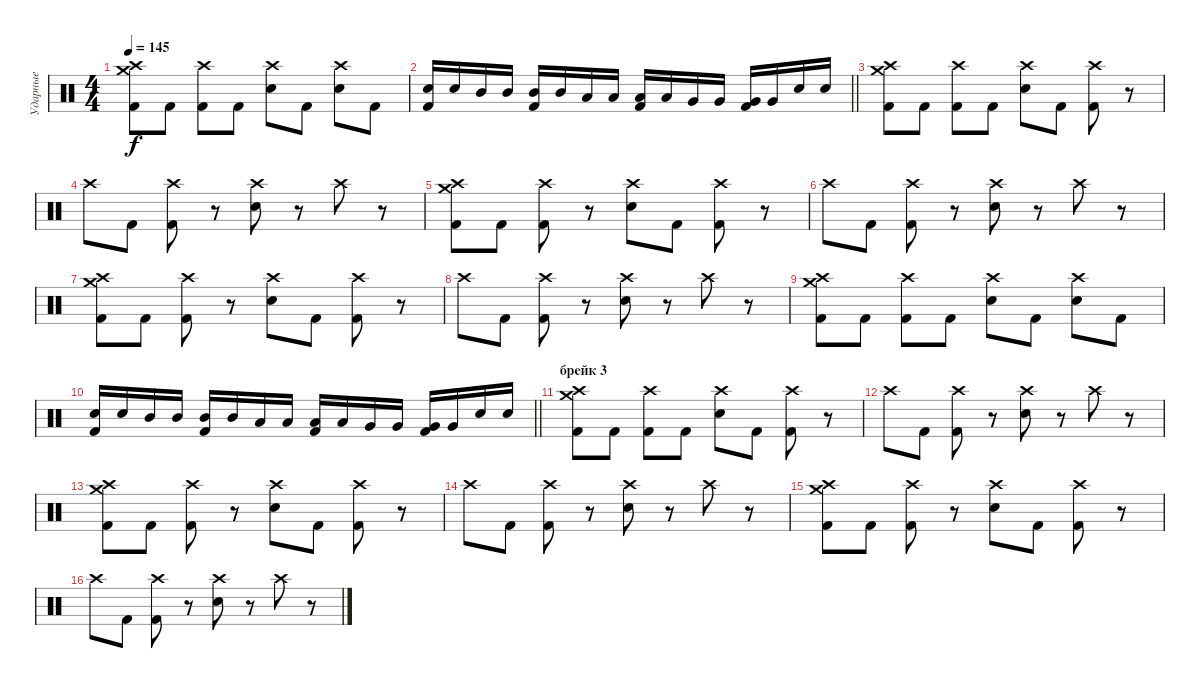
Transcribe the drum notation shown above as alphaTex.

\track ("Ударные" "Ударные") {instrument percussion}
\staff {score}
\articulation defaults
\ts (4 4)
\tempo 145
\clef neutral
\ks c
("Crash medium (hit)" "Crash high (hit)" "Kick (hit) 2").8{dy f} "Kick (hit) 2".8 ("Crash high (hit)" "Kick (hit) 2").8 "Kick (hit) 2".8 ("Crash high (hit)" "Electric Snare (hit)").8 "Kick (hit) 2".8 ("Crash high (hit)" "Electric Snare (hit)").8 "Kick (hit) 2".8 |
\barLineRight lightlight
("Electric Snare (hit)" "Kick (hit) 2").16 "Electric Snare (hit)".16 "Mid Tom (hit)".16 "Mid Tom (hit)".16 ("Mid Tom (hit)" "Kick (hit) 2").16 "Mid Tom (hit)".16 "Low Tom (hit)".16 "Low Tom (hit)".16 ("Low Tom (hit)" "Kick (hit) 2").16 "Low Tom (hit)".16 "Very Low Tom (hit)".16 "Very Low Tom (hit)".16 ("Very Low Tom (hit)" "Kick (hit) 2").16 "Very Low Tom (hit)".16 "Electric Snare (hit)".16 "Electric Snare (hit)".16 |
("Crash medium (hit)" "Crash high (hit)" "Kick (hit) 2").8 "Kick (hit) 2".8 ("Crash high (hit)" "Kick (hit) 2").8 "Kick (hit) 2".8 ("Crash high (hit)" "Electric Snare (hit)").8 "Kick (hit) 2".8 ("Crash high (hit)" "Kick (hit) 2").8 r.8 |
"Crash high (hit)".8 "Kick (hit) 2".8 ("Crash high (hit)" "Kick (hit) 2").8 r.8 ("Crash high (hit)" "Electric Snare (hit)").8 r.8 "Crash high (hit)".8 r.8 |
("Crash medium (hit)" "Crash high (hit)" "Kick (hit) 2").8 "Kick (hit) 2".8 ("Crash high (hit)" "Kick (hit) 2").8 r.8 ("Crash high (hit)" "Electric Snare (hit)").8 "Kick (hit) 2".8 ("Crash high (hit)" "Kick (hit) 2").8 r.8 |
"Crash high (hit)".8 "Kick (hit) 2".8 ("Crash high (hit)" "Kick (hit) 2").8 r.8 ("Crash high (hit)" "Electric Snare (hit)").8 r.8 "Crash high (hit)".8 r.8 |
("Crash medium (hit)" "Crash high (hit)" "Kick (hit) 2").8 "Kick (hit) 2".8 ("Crash high (hit)" "Kick (hit) 2").8 r.8 ("Crash high (hit)" "Electric Snare (hit)").8 "Kick (hit) 2".8 ("Crash high (hit)" "Kick (hit) 2").8 r.8 |
"Crash high (hit)".8 "Kick (hit) 2".8 ("Crash high (hit)" "Kick (hit) 2").8 r.8 ("Crash high (hit)" "Electric Snare (hit)").8 r.8 "Crash high (hit)".8 r.8 |
("Crash medium (hit)" "Crash high (hit)" "Kick (hit) 2").8 "Kick (hit) 2".8 ("Crash high (hit)" "Kick (hit) 2").8 "Kick (hit) 2".8 ("Crash high (hit)" "Electric Snare (hit)").8 "Kick (hit) 2".8 ("Crash high (hit)" "Electric Snare (hit)").8 "Kick (hit) 2".8 |
\barLineRight lightlight
("Electric Snare (hit)" "Kick (hit) 2").16 "Electric Snare (hit)".16 "Mid Tom (hit)".16 "Mid Tom (hit)".16 ("Mid Tom (hit)" "Kick (hit) 2").16 "Mid Tom (hit)".16 "Low Tom (hit)".16 "Low Tom (hit)".16 ("Low Tom (hit)" "Kick (hit) 2").16 "Low Tom (hit)".16 "Very Low Tom (hit)".16 "Very Low Tom (hit)".16 ("Very Low Tom (hit)" "Kick (hit) 2").16 "Very Low Tom (hit)".16 "Electric Snare (hit)".16 "Electric Snare (hit)".16 |
\section ("" "брейк 3")
("Crash medium (hit)" "Crash high (hit)" "Kick (hit) 2").8 "Kick (hit) 2".8 ("Crash high (hit)" "Kick (hit) 2").8 "Kick (hit) 2".8 ("Crash high (hit)" "Electric Snare (hit)").8 "Kick (hit) 2".8 ("Crash high (hit)" "Kick (hit) 2").8 r.8 |
"Crash high (hit)".8 "Kick (hit) 2".8 ("Crash high (hit)" "Kick (hit) 2").8 r.8 ("Crash high (hit)" "Electric Snare (hit)").8 r.8 "Crash high (hit)".8 r.8 |
("Crash medium (hit)" "Crash high (hit)" "Kick (hit) 2").8 "Kick (hit) 2".8 ("Crash high (hit)" "Kick (hit) 2").8 r.8 ("Crash high (hit)" "Electric Snare (hit)").8 "Kick (hit) 2".8 ("Crash high (hit)" "Kick (hit) 2").8 r.8 |
"Crash high (hit)".8 "Kick (hit) 2".8 ("Crash high (hit)" "Kick (hit) 2").8 r.8 ("Crash high (hit)" "Electric Snare (hit)").8 r.8 "Crash high (hit)".8 r.8 |
("Crash medium (hit)" "Crash high (hit)" "Kick (hit) 2").8 "Kick (hit) 2".8 ("Crash high (hit)" "Kick (hit) 2").8 r.8 ("Crash high (hit)" "Electric Snare (hit)").8 "Kick (hit) 2".8 ("Crash high (hit)" "Kick (hit) 2").8 r.8 |
"Crash high (hit)".8 "Kick (hit) 2".8 ("Crash high (hit)" "Kick (hit) 2").8 r.8 ("Crash high (hit)" "Electric Snare (hit)").8 r.8 "Crash high (hit)".8 r.8
